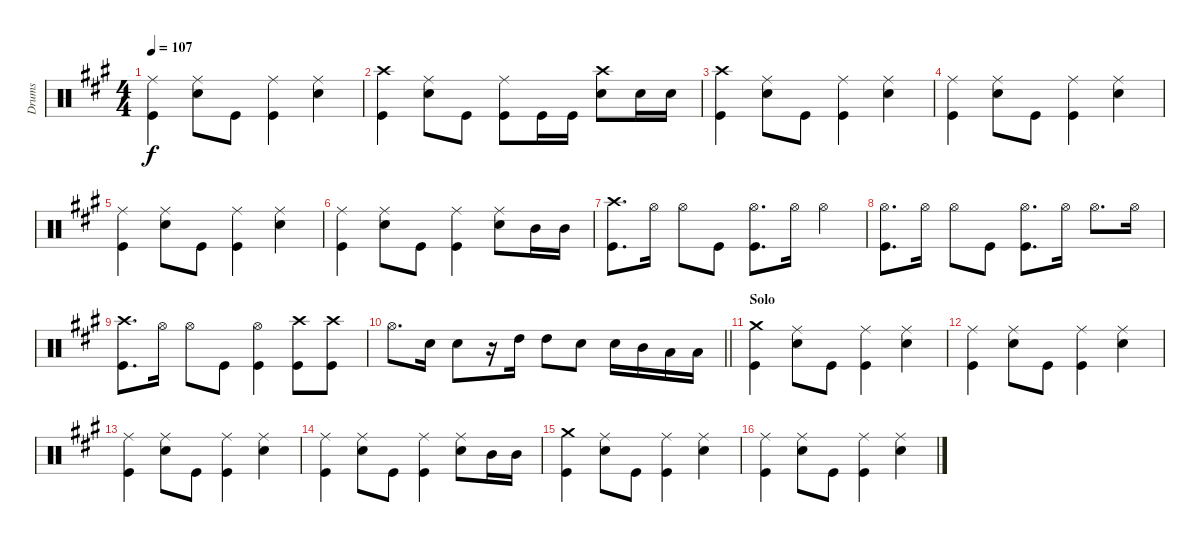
\track ("Drums" "Drums") {instrument percussion}
\staff {score}
\articulation defaults
\ts (4 4)
\tempo 107
\clef neutral
\ks a
("Ride (middle)" "Kick (hit)").4{dy f} ("Ride (middle)" "Snare (hit) 2").8 "Kick (hit)".8 ("Ride (middle)" "Kick (hit)").4 ("Ride (middle)" "Snare (hit) 2").4 |
("Crash high (hit)" "Kick (hit)").4 ("Ride (middle)" "Snare (hit) 2").8 "Kick (hit)".8 ("Ride (middle)" "Kick (hit)").8 "Kick (hit)".16 "Kick (hit)".16 ("Crash high (hit)" "Snare (hit) 2").8 "Snare (hit) 2".16 "Snare (hit) 2".16 |
("Crash high (hit)" "Kick (hit)").4 ("Ride (middle)" "Snare (hit) 2").8 "Kick (hit)".8 ("Ride (middle)" "Kick (hit)").4 ("Ride (middle)" "Snare (hit) 2").4 |
("Ride (middle)" "Kick (hit)").4 ("Ride (middle)" "Snare (hit) 2").8 "Kick (hit)".8 ("Ride (middle)" "Kick (hit)").4 ("Ride (middle)" "Snare (hit) 2").4 |
("Ride (middle)" "Kick (hit)").4 ("Ride (middle)" "Snare (hit) 2").8 "Kick (hit)".8 ("Ride (middle)" "Kick (hit)").4 ("Ride (middle)" "Snare (hit) 2").4 |
("Ride (middle)" "Kick (hit)").4 ("Ride (middle)" "Snare (hit) 2").8 "Kick (hit)".8 ("Ride (middle)" "Kick (hit)").4 ("Ride (middle)" "Snare (hit) 2").8 "Mid Tom (hit)".16 "Mid Tom (hit)".16 |
("Crash high (hit)" "Kick (hit)").8{d} "Hi-Hat (open)".16 "Hi-Hat (open)".8 "Kick (hit)".8 ("Hi-Hat (open)" "Kick (hit)").8{d} "Hi-Hat (open)".16 "Hi-Hat (open)".4 |
("Hi-Hat (open)" "Kick (hit)").8{d} "Hi-Hat (open)".16 "Hi-Hat (open)".8 "Kick (hit)".8 ("Hi-Hat (open)" "Kick (hit)").8{d} "Hi-Hat (open)".16 "Hi-Hat (open)".8{d} "Hi-Hat (open)".16 |
("Crash high (hit)" "Kick (hit)").8{d} "Hi-Hat (open)".16 "Hi-Hat (open)".8 "Kick (hit)".8 ("Hi-Hat (open)" "Kick (hit)").4 ("Crash high (hit)" "Kick (hit)").8 ("Crash high (hit)" "Kick (hit)").8 |
\barLineRight lightlight "Hi-Hat (open)".8{d} "Snare (hit) 2".16 "Snare (hit) 2".8
r.16 "High Tom (hit)".16 "High Tom (hit)".8 "Snare (hit) 2".8 "Snare (hit) 2".16 "Mid Tom (hit)".16 "Low Tom (hit)".16 "Low Tom (hit)".16 |
\section ("" "Solo")
("Crash medium (hit)" "Kick (hit)").4 ("Ride (middle)" "Snare (hit) 2").8 "Kick (hit)".8 ("Ride (middle)" "Kick (hit)").4 ("Ride (middle)" "Snare (hit) 2").4 |
("Ride (middle)" "Kick (hit)").4 ("Ride (middle)" "Snare (hit) 2").8 "Kick (hit)".8 ("Ride (middle)" "Kick (hit)").4 ("Ride (middle)" "Snare (hit) 2").4 |
("Ride (middle)" "Kick (hit)").4 ("Ride (middle)" "Snare (hit) 2").8 "Kick (hit)".8 ("Ride (middle)" "Kick (hit)").4 ("Ride (middle)" "Snare (hit) 2").4 |
("Ride (middle)" "Kick (hit)").4 ("Ride (middle)" "Snare (hit) 2").8 "Kick (hit)".8 ("Ride (middle)" "Kick (hit)").4 ("Ride (middle)" "Snare (hit) 2").8 "Mid Tom (hit)".16 "Mid Tom (hit)".16 |
("Crash medium (hit)" "Kick (hit)").4 ("Ride (middle)" "Snare (hit) 2").8 "Kick (hit)".8 ("Ride (middle)" "Kick (hit)").4 ("Ride (middle)" "Snare (hit) 2").4 |
("Ride (middle)" "Kick (hit)").4 ("Ride (middle)" "Snare (hit) 2").8 "Kick (hit)".8 ("Ride (middle)" "Kick (hit)").4 ("Ride (middle)" "Snare (hit) 2").4
